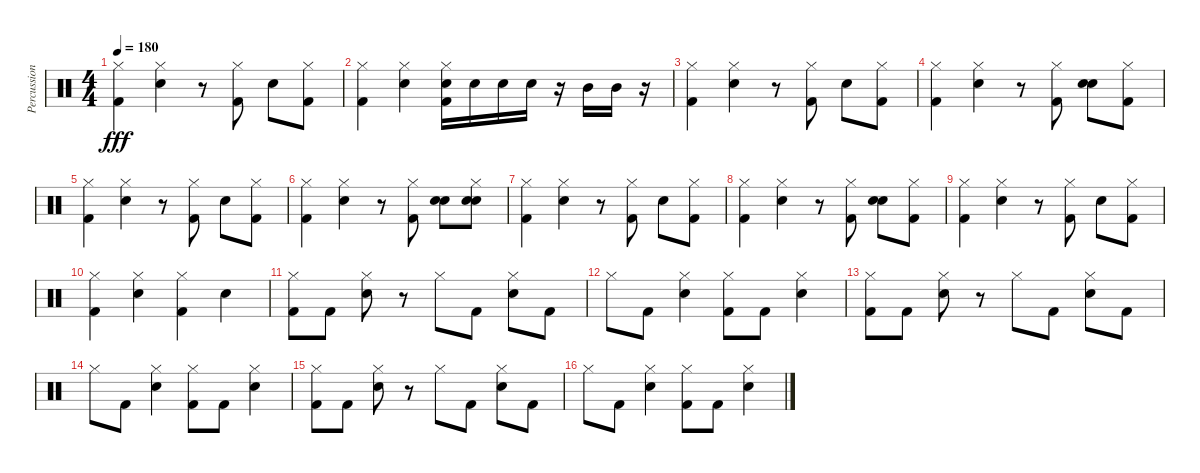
\track ("Percussion" "Percussion") {instrument percussion}
\staff {score}
\articulation defaults
\ts (4 4)
\tempo 180
\clef neutral
\ks c
("Hi-Hat (closed)" "Kick (hit) 2").4{dy fff} ("Hi-Hat (closed)" "Snare (hit) 2").4 r.8 ("Hi-Hat (closed)" "Kick (hit) 2").8 "Snare (hit) 2".8 ("Hi-Hat (closed)" "Kick (hit) 2").8 |
("Hi-Hat (closed)" "Kick (hit) 2").4 ("Hi-Hat (closed)" "Snare (hit) 2").4 ("Hi-Hat (closed)" "Snare (hit) 2" "Kick (hit) 2").16 "Snare (hit) 2".16 "Snare (hit) 2".16 "Snare (hit) 2".16 r.16 "Mid Tom (hit)".16 "Mid Tom (hit)".16 r.16 |
("Hi-Hat (closed)" "Kick (hit) 2").4 ("Hi-Hat (closed)" "Snare (hit) 2").4 r.8 ("Hi-Hat (closed)" "Kick (hit) 2").8 "Snare (hit) 2".8 ("Hi-Hat (closed)" "Kick (hit) 2").8 |
("Hi-Hat (closed)" "Kick (hit) 2").4 ("Hi-Hat (closed)" "Snare (hit) 2").4 r.8 ("Hi-Hat (closed)" "Kick (hit) 2").8 ("Snare (hit) 2" "Snare (hit) 2").8 ("Hi-Hat (closed)" "Kick (hit) 2").8 |
("Hi-Hat (closed)" "Kick (hit) 2").4 ("Hi-Hat (closed)" "Snare (hit) 2").4 r.8 ("Hi-Hat (closed)" "Kick (hit) 2").8 "Snare (hit) 2".8 ("Hi-Hat (closed)" "Kick (hit) 2").8 |
("Hi-Hat (closed)" "Kick (hit) 2").4 ("Hi-Hat (closed)" "Snare (hit) 2").4 r.8 ("Hi-Hat (closed)" "Kick (hit) 2").8 ("Snare (hit) 2" "Snare (hit) 2").8 ("Hi-Hat (closed)" "Snare (hit) 2" "Snare (hit) 2").8 |
("Hi-Hat (closed)" "Kick (hit) 2").4 ("Hi-Hat (closed)" "Snare (hit) 2").4 r.8 ("Hi-Hat (closed)" "Kick (hit) 2").8 "Snare (hit) 2".8 ("Hi-Hat (closed)" "Kick (hit) 2").8 |
("Hi-Hat (closed)" "Kick (hit) 2").4 ("Hi-Hat (closed)" "Snare (hit) 2").4 r.8 ("Hi-Hat (closed)" "Kick (hit) 2").8 ("Snare (hit) 2" "Snare (hit) 2").8 ("Hi-Hat (closed)" "Kick (hit) 2").8 |
("Hi-Hat (closed)" "Kick (hit) 2").4 ("Hi-Hat (closed)" "Snare (hit) 2").4 r.8 ("Hi-Hat (closed)" "Kick (hit) 2").8 "Snare (hit) 2".8 ("Hi-Hat (closed)" "Kick (hit) 2").8 |
("Hi-Hat (closed)" "Kick (hit) 2").4 ("Hi-Hat (closed)" "Snare (hit) 2").4 ("Hi-Hat (closed)" "Kick (hit) 2").4 "Snare (hit) 2".4 |
("Hi-Hat (closed)" "Kick (hit) 2").8 "Kick (hit) 2".8 ("Hi-Hat (closed)" "Snare (hit) 2").8 r.8 "Hi-Hat (closed)".8 "Kick (hit) 2".8 ("Hi-Hat (closed)" "Snare (hit) 2").8 "Kick (hit) 2".8 |
"Hi-Hat (closed)".8 "Kick (hit) 2".8 ("Hi-Hat (closed)" "Snare (hit) 2").4 ("Hi-Hat (closed)" "Kick (hit) 2").8 "Kick (hit) 2".8 ("Hi-Hat (closed)" "Snare (hit) 2").4 |
("Hi-Hat (closed)" "Kick (hit) 2").8 "Kick (hit) 2".8 ("Hi-Hat (closed)" "Snare (hit) 2").8 r.8 "Hi-Hat (closed)".8 "Kick (hit) 2".8 ("Hi-Hat (closed)" "Snare (hit) 2").8 "Kick (hit) 2".8 |
"Hi-Hat (closed)".8 "Kick (hit) 2".8 ("Hi-Hat (closed)" "Snare (hit) 2").4 ("Hi-Hat (closed)" "Kick (hit) 2").8 "Kick (hit) 2".8 ("Hi-Hat (closed)" "Snare (hit) 2").4 |
("Hi-Hat (closed)" "Kick (hit) 2").8 "Kick (hit) 2".8 ("Hi-Hat (closed)" "Snare (hit) 2").8 r.8 "Hi-Hat (closed)".8 "Kick (hit) 2".8 ("Hi-Hat (closed)" "Snare (hit) 2").8 "Kick (hit) 2".8 |
"Hi-Hat (closed)".8 "Kick (hit) 2".8 ("Hi-Hat (closed)" "Snare (hit) 2").4 ("Hi-Hat (closed)" "Kick (hit) 2").8 "Kick (hit) 2".8 ("Hi-Hat (closed)" "Snare (hit) 2").4
